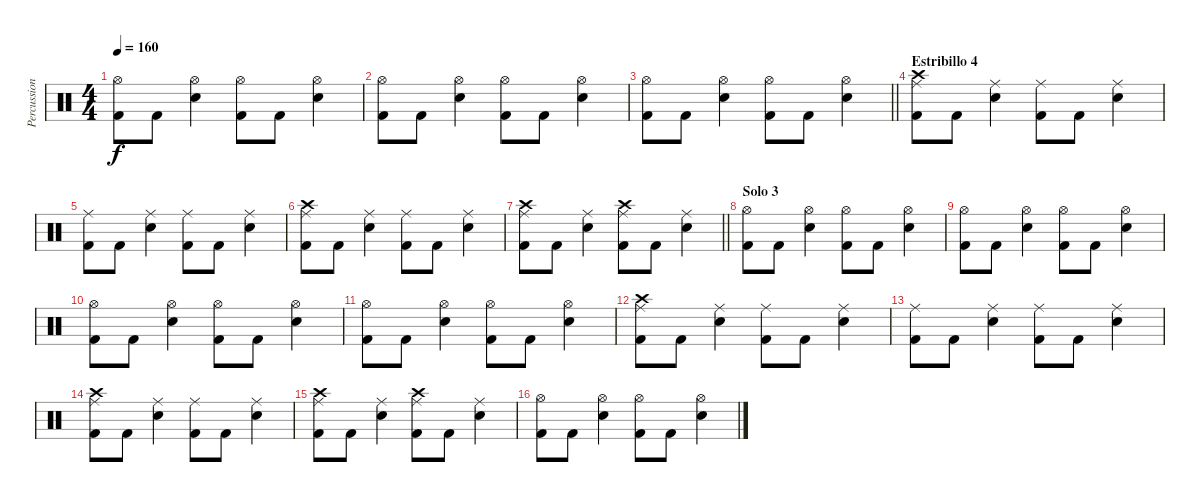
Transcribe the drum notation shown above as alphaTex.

\track ("Percussion" "Percussion") {instrument percussion}
\staff {score}
\articulation defaults
\ts (4 4)
\tempo 160
\clef neutral
\ks c
("Hi-Hat (open)" "Kick (hit) 2").8{dy f} "Kick (hit) 2".8 ("Hi-Hat (open)" "Snare (hit) 2").4 ("Hi-Hat (open)" "Kick (hit) 2").8 "Kick (hit) 2".8 ("Hi-Hat (open)" "Snare (hit) 2").4 |
("Hi-Hat (open)" "Kick (hit) 2").8 "Kick (hit) 2".8 ("Hi-Hat (open)" "Snare (hit) 2").4 ("Hi-Hat (open)" "Kick (hit) 2").8 "Kick (hit) 2".8 ("Hi-Hat (open)" "Snare (hit) 2").4 |
\barLineRight lightlight
("Hi-Hat (open)" "Kick (hit) 2").8 "Kick (hit) 2".8 ("Hi-Hat (open)" "Snare (hit) 2").4 ("Hi-Hat (open)" "Kick (hit) 2").8 "Kick (hit) 2".8 ("Hi-Hat (open)" "Snare (hit) 2").4 |
\section ("" "Estribillo 4")
("Ride (middle)" "Crash high (hit)" "Kick (hit) 2").8 "Kick (hit) 2".8 ("Ride (middle)" "Snare (hit) 2").4 ("Ride (middle)" "Kick (hit) 2").8 "Kick (hit) 2".8 ("Ride (middle)" "Snare (hit) 2").4 |
("Ride (middle)" "Kick (hit) 2").8 "Kick (hit) 2".8 ("Ride (middle)" "Snare (hit) 2").4 ("Ride (middle)" "Kick (hit) 2").8 "Kick (hit) 2".8 ("Ride (middle)" "Snare (hit) 2").4 |
("Ride (middle)" "Crash high (hit)" "Kick (hit) 2").8 "Kick (hit) 2".8 ("Ride (middle)" "Snare (hit) 2").4 ("Ride (middle)" "Kick (hit) 2").8 "Kick (hit) 2".8 ("Ride (middle)" "Snare (hit) 2").4 |
\barLineRight lightlight
("Ride (middle)" "Crash high (hit)" "Kick (hit) 2").8 "Kick (hit) 2".8 ("Ride (middle)" "Snare (hit) 2").4 ("Ride (middle)" "Crash high (hit)" "Kick (hit) 2").8 "Kick (hit) 2".8 ("Ride (middle)" "Snare (hit) 2").4 |
\section ("" "Solo 3")
("Hi-Hat (open)" "Kick (hit) 2").8 "Kick (hit) 2".8 ("Hi-Hat (open)" "Snare (hit) 2").4 ("Hi-Hat (open)" "Kick (hit) 2").8 "Kick (hit) 2".8 ("Hi-Hat (open)" "Snare (hit) 2").4 |
("Hi-Hat (open)" "Kick (hit) 2").8 "Kick (hit) 2".8 ("Hi-Hat (open)" "Snare (hit) 2").4 ("Hi-Hat (open)" "Kick (hit) 2").8 "Kick (hit) 2".8 ("Hi-Hat (open)" "Snare (hit) 2").4 |
("Hi-Hat (open)" "Kick (hit) 2").8 "Kick (hit) 2".8 ("Hi-Hat (open)" "Snare (hit) 2").4 ("Hi-Hat (open)" "Kick (hit) 2").8 "Kick (hit) 2".8 ("Hi-Hat (open)" "Snare (hit) 2").4 |
("Hi-Hat (open)" "Kick (hit) 2").8 "Kick (hit) 2".8 ("Hi-Hat (open)" "Snare (hit) 2").4 ("Hi-Hat (open)" "Kick (hit) 2").8 "Kick (hit) 2".8 ("Hi-Hat (open)" "Snare (hit) 2").4 |
("Ride (middle)" "Crash high (hit)" "Kick (hit) 2").8 "Kick (hit) 2".8 ("Ride (middle)" "Snare (hit) 2").4 ("Ride (middle)" "Kick (hit) 2").8 "Kick (hit) 2".8 ("Ride (middle)" "Snare (hit) 2").4 |
("Ride (middle)" "Kick (hit) 2").8 "Kick (hit) 2".8 ("Ride (middle)" "Snare (hit) 2").4 ("Ride (middle)" "Kick (hit) 2").8 "Kick (hit) 2".8 ("Ride (middle)" "Snare (hit) 2").4 |
("Ride (middle)" "Crash high (hit)" "Kick (hit) 2").8 "Kick (hit) 2".8 ("Ride (middle)" "Snare (hit) 2").4 ("Ride (middle)" "Kick (hit) 2").8 "Kick (hit) 2".8 ("Ride (middle)" "Snare (hit) 2").4 |
("Ride (middle)" "Crash high (hit)" "Kick (hit) 2").8 "Kick (hit) 2".8 ("Ride (middle)" "Snare (hit) 2").4 ("Ride (middle)" "Crash high (hit)" "Kick (hit) 2").8 "Kick (hit) 2".8 ("Ride (middle)" "Snare (hit) 2").4 |
("Hi-Hat (open)" "Kick (hit) 2").8 "Kick (hit) 2".8 ("Hi-Hat (open)" "Snare (hit) 2").4 ("Hi-Hat (open)" "Kick (hit) 2").8 "Kick (hit) 2".8 ("Hi-Hat (open)" "Snare (hit) 2").4
